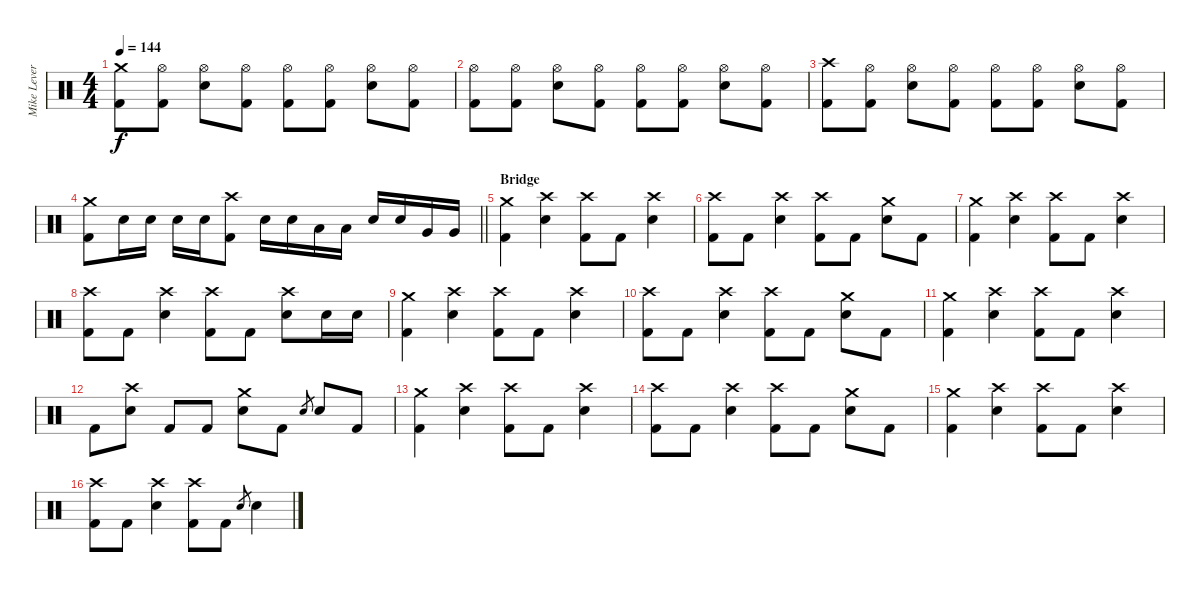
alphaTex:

\track ("Mike Leverence - Drums" "Mike Lever") {instrument percussion}
\staff {score}
\articulation defaults
\ts (4 4)
\tempo 144
\clef neutral
\ks c
("Crash medium (hit)" "Kick (hit) 2").8{dy f} ("Hi-Hat (open)" "Kick (hit) 2").8 ("Hi-Hat (open)" "Electric Snare (hit)").8 ("Hi-Hat (open)" "Kick (hit) 2").8 ("Hi-Hat (open)" "Kick (hit) 2").8 ("Hi-Hat (open)" "Kick (hit) 2").8 ("Hi-Hat (open)" "Electric Snare (hit)").8 ("Hi-Hat (open)" "Kick (hit) 2").8 |
("Hi-Hat (open)" "Kick (hit) 2").8 ("Hi-Hat (open)" "Kick (hit) 2").8 ("Hi-Hat (open)" "Electric Snare (hit)").8 ("Hi-Hat (open)" "Kick (hit) 2").8 ("Hi-Hat (open)" "Kick (hit) 2").8 ("Hi-Hat (open)" "Kick (hit) 2").8 ("Hi-Hat (open)" "Electric Snare (hit)").8 ("Hi-Hat (open)" "Kick (hit) 2").8 |
("Crash high (hit)" "Kick (hit) 2").8 ("Hi-Hat (open)" "Kick (hit) 2").8 ("Hi-Hat (open)" "Electric Snare (hit)").8 ("Hi-Hat (open)" "Kick (hit) 2").8 ("Hi-Hat (open)" "Kick (hit) 2").8 ("Hi-Hat (open)" "Kick (hit) 2").8 ("Hi-Hat (open)" "Electric Snare (hit)").8 ("Hi-Hat (open)" "Kick (hit) 2").8 |
\barLineRight lightlight
("Crash medium (hit)" "Kick (hit) 2").8 "Electric Snare (hit)".16 "Electric Snare (hit)".16 "Electric Snare (hit)".16 "Electric Snare (hit)".16 ("Crash high (hit)" "Kick (hit) 2").8 "Electric Snare (hit)".16 "Electric Snare (hit)".16 "Low Tom (hit)".16 "Low Tom (hit)".16 "Electric Snare (hit)".16 "Electric Snare (hit)".16 "Very Low Tom (hit)".16 "Very Low Tom (hit)".16 |
\section ("" "Bridge")
("Crash medium (hit)" "Kick (hit) 2").4 ("Crash high (hit)" "Electric Snare (hit)").4 ("Crash high (hit)" "Kick (hit) 2").8 "Kick (hit) 2".8 ("Crash high (hit)" "Electric Snare (hit)").4 |
("Crash high (hit)" "Kick (hit) 2").8 "Kick (hit) 2".8 ("Crash high (hit)" "Electric Snare (hit)").4 ("Crash high (hit)" "Kick (hit) 2").8 "Kick (hit) 2".8 ("Crash medium (hit)" "Electric Snare (hit)").8 "Kick (hit) 2".8 |
("Crash medium (hit)" "Kick (hit) 2").4 ("Crash high (hit)" "Electric Snare (hit)").4 ("Crash high (hit)" "Kick (hit) 2").8 "Kick (hit) 2".8 ("Crash high (hit)" "Electric Snare (hit)").4 |
("Crash high (hit)" "Kick (hit) 2").8 "Kick (hit) 2".8 ("Crash high (hit)" "Electric Snare (hit)").4 ("Crash high (hit)" "Kick (hit) 2").8 "Kick (hit) 2".8 ("Crash high (hit)" "Electric Snare (hit)").8 "Electric Snare (hit)".16 "Electric Snare (hit)".16 |
("Crash medium (hit)" "Kick (hit) 2").4 ("Crash high (hit)" "Electric Snare (hit)").4 ("Crash high (hit)" "Kick (hit) 2").8 "Kick (hit) 2".8 ("Crash high (hit)" "Electric Snare (hit)").4 |
("Crash high (hit)" "Kick (hit) 2").8 "Kick (hit) 2".8 ("Crash high (hit)" "Electric Snare (hit)").4 ("Crash high (hit)" "Kick (hit) 2").8 "Kick (hit) 2".8 ("Crash medium (hit)" "Electric Snare (hit)").8 "Kick (hit) 2".8 |
("Crash medium (hit)" "Kick (hit) 2").4 ("Crash high (hit)" "Electric Snare (hit)").4 ("Crash high (hit)" "Kick (hit) 2").8 "Kick (hit) 2".8 ("Crash high (hit)" "Electric Snare (hit)").4 |
"Kick (hit) 2".8 ("Crash high (hit)" "Electric Snare (hit)").8 "Kick (hit) 2".8 "Kick (hit) 2".8 ("Crash medium (hit)" "Electric Snare (hit)").8 "Kick (hit) 2".8 "Electric Snare (hit)".8{gr} "Electric Snare (hit)".8 "Kick (hit) 2".8 |
("Crash medium (hit)" "Kick (hit) 2").4 ("Crash high (hit)" "Electric Snare (hit)").4 ("Crash high (hit)" "Kick (hit) 2").8 "Kick (hit) 2".8 ("Crash high (hit)" "Electric Snare (hit)").4 |
("Crash high (hit)" "Kick (hit) 2").8 "Kick (hit) 2".8 ("Crash high (hit)" "Electric Snare (hit)").4 ("Crash high (hit)" "Kick (hit) 2").8 "Kick (hit) 2".8 ("Crash medium (hit)" "Electric Snare (hit)").8 "Kick (hit) 2".8 |
("Crash medium (hit)" "Kick (hit) 2").4 ("Crash high (hit)" "Electric Snare (hit)").4 ("Crash high (hit)" "Kick (hit) 2").8 "Kick (hit) 2".8 ("Crash high (hit)" "Electric Snare (hit)").4 |
("Crash high (hit)" "Kick (hit) 2").8 "Kick (hit) 2".8 ("Crash high (hit)" "Electric Snare (hit)").4 ("Crash high (hit)" "Kick (hit) 2").8 "Kick (hit) 2".8 "Electric Snare (hit)".8{gr} "Electric Snare (hit)".4
